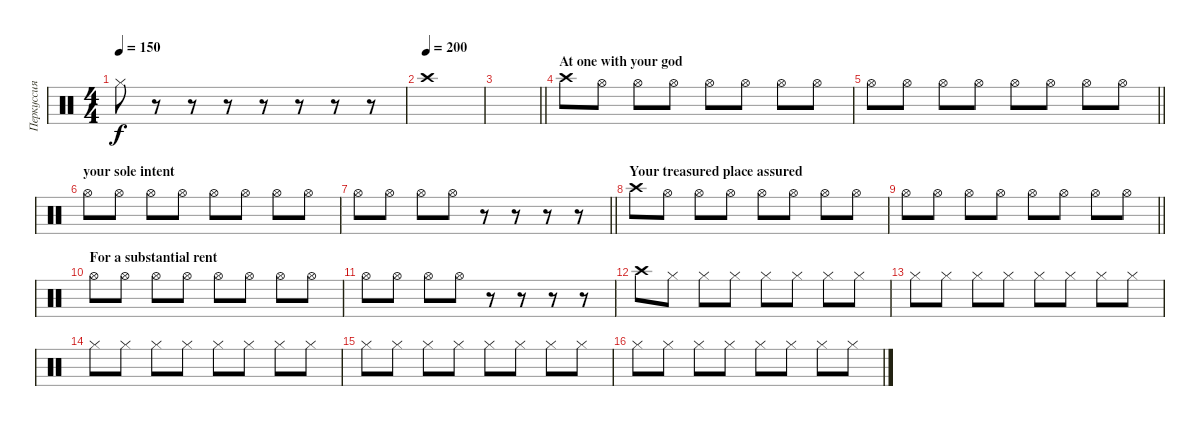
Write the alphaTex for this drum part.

\track ("Перкуссия" "Перкуссия") {instrument percussion}
\staff {score}
\articulation defaults
\ts (4 4)
\tempo 150
\clef neutral
\ks c "Hi-Hat (closed)".8{dy f}
r.8 r.8 r.8 r.8 r.8 r.8 r.8 |
\tempo (200)
"Crash high (hit)".1 |
\barLineRight lightlight
|
\section ("" "At one with your god")
"Crash high (hit)".8 "Hi-Hat (open)".8 "Hi-Hat (open)".8 "Hi-Hat (open)".8 "Hi-Hat (open)".8 "Hi-Hat (open)".8 "Hi-Hat (open)".8 "Hi-Hat (open)".8 |
\barLineRight lightlight "Hi-Hat (open)".8 "Hi-Hat (open)".8 "Hi-Hat (open)".8 "Hi-Hat (open)".8 "Hi-Hat (open)".8 "Hi-Hat (open)".8 "Hi-Hat (open)".8 "Hi-Hat (open)".8
|
\section ("" "your sole intent")
"Hi-Hat (open)".8 "Hi-Hat (open)".8 "Hi-Hat (open)".8 "Hi-Hat (open)".8 "Hi-Hat (open)".8 "Hi-Hat (open)".8 "Hi-Hat (open)".8 "Hi-Hat (open)".8 |
\barLineRight lightlight "Hi-Hat (open)".8 "Hi-Hat (open)".8 "Hi-Hat (open)".8 "Hi-Hat (open)".8
r.8 r.8 r.8 r.8 |
\section ("" "Your treasured place assured")
"Crash high (hit)".8 "Hi-Hat (open)".8 "Hi-Hat (open)".8 "Hi-Hat (open)".8 "Hi-Hat (open)".8 "Hi-Hat (open)".8 "Hi-Hat (open)".8 "Hi-Hat (open)".8 |
\barLineRight lightlight "Hi-Hat (open)".8 "Hi-Hat (open)".8 "Hi-Hat (open)".8 "Hi-Hat (open)".8 "Hi-Hat (open)".8 "Hi-Hat (open)".8 "Hi-Hat (open)".8 "Hi-Hat (open)".8
|
\section ("" "For a substantial rent")
"Hi-Hat (open)".8 "Hi-Hat (open)".8 "Hi-Hat (open)".8 "Hi-Hat (open)".8 "Hi-Hat (open)".8 "Hi-Hat (open)".8 "Hi-Hat (open)".8 "Hi-Hat (open)".8 |
"Hi-Hat (open)".8 "Hi-Hat (open)".8 "Hi-Hat (open)".8 "Hi-Hat (open)".8 r.8 r.8 r.8 r.8 |
"Crash high (hit)".8 "Hi-Hat (closed)".8 "Hi-Hat (closed)".8 "Hi-Hat (closed)".8 "Hi-Hat (closed)".8 "Hi-Hat (closed)".8 "Hi-Hat (closed)".8 "Hi-Hat (closed)".8 |
"Hi-Hat (closed)".8 "Hi-Hat (closed)".8 "Hi-Hat (closed)".8 "Hi-Hat (closed)".8 "Hi-Hat (closed)".8 "Hi-Hat (closed)".8 "Hi-Hat (closed)".8 "Hi-Hat (closed)".8 |
"Hi-Hat (closed)".8 "Hi-Hat (closed)".8 "Hi-Hat (closed)".8 "Hi-Hat (closed)".8 "Hi-Hat (closed)".8 "Hi-Hat (closed)".8 "Hi-Hat (closed)".8 "Hi-Hat (closed)".8 |
"Hi-Hat (closed)".8 "Hi-Hat (closed)".8 "Hi-Hat (closed)".8 "Hi-Hat (closed)".8 "Hi-Hat (closed)".8 "Hi-Hat (closed)".8 "Hi-Hat (closed)".8 "Hi-Hat (closed)".8 |
"Hi-Hat (closed)".8 "Hi-Hat (closed)".8 "Hi-Hat (closed)".8 "Hi-Hat (closed)".8 "Hi-Hat (closed)".8 "Hi-Hat (closed)".8 "Hi-Hat (closed)".8 "Hi-Hat (closed)".8
